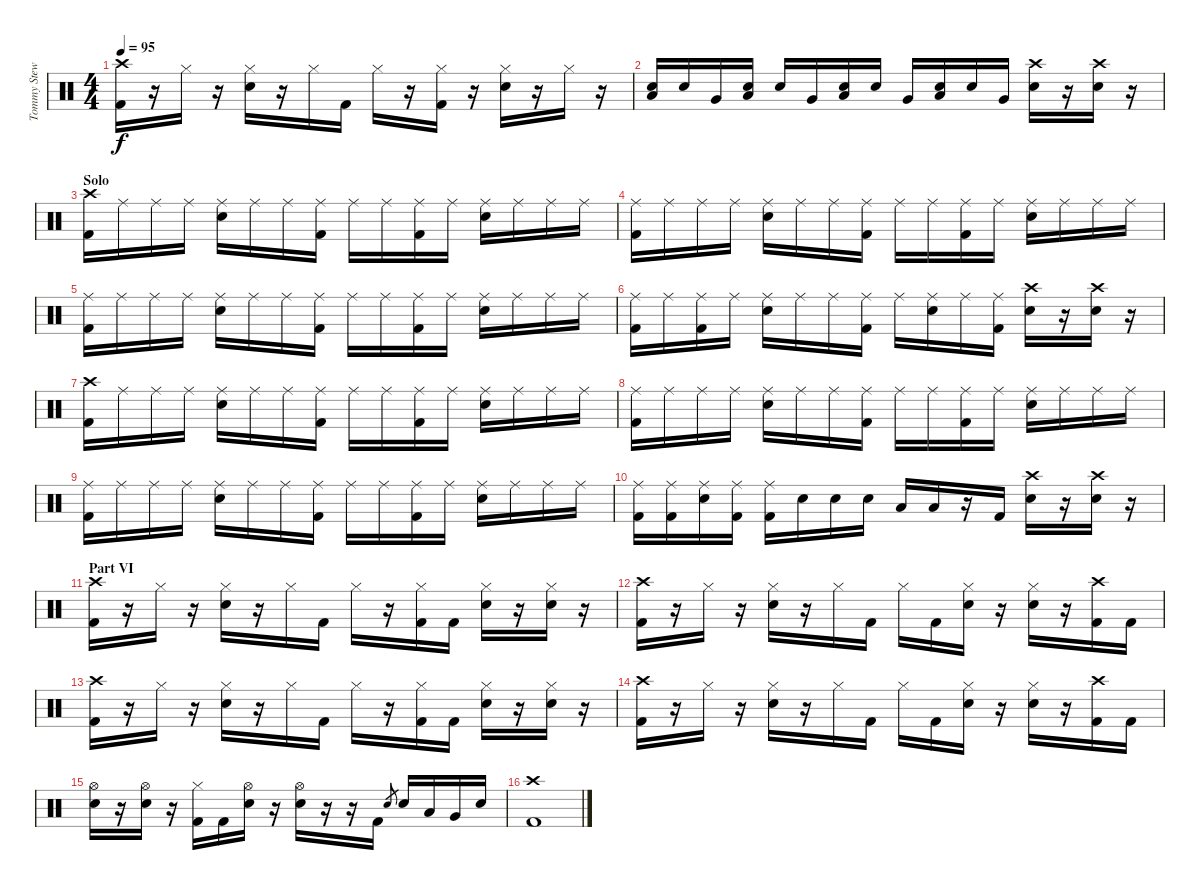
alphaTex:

\track ("Tommy Stewart - Drums" "Tommy Stew") {instrument percussion}
\staff {score}
\articulation defaults
\ts (4 4)
\tempo 95
\clef neutral
\ks c
("Crash high (hit)" "Kick (hit) 2").16{dy f} r.16 "Hi-Hat (closed)".16 r.16 ("Hi-Hat (closed)" "Snare (hit) 2").16 r.16 "Hi-Hat (closed)".16 "Kick (hit) 2".16 "Hi-Hat (closed)".16 r.16 ("Hi-Hat (closed)" "Kick (hit) 2").16 r.16 ("Hi-Hat (closed)" "Snare (hit) 2").16 r.16 "Hi-Hat (closed)".16 r.16 |
("Low Tom (hit)" "Snare (hit) 2").16 "Snare (hit) 2".16 "Very Low Tom (hit)".16 ("Low Tom (hit)" "Snare (hit) 2").16 "Snare (hit) 2".16 "Very Low Tom (hit)".16 ("Low Tom (hit)" "Snare (hit) 2").16 "Snare (hit) 2".16 "Very Low Tom (hit)".16 ("Low Tom (hit)" "Snare (hit) 2").16 "Snare (hit) 2".16 "Very Low Tom (hit)".16 ("Crash high (hit)" "Snare (hit) 2").16 r.16 ("Crash high (hit)" "Snare (hit) 2").16 r.16 |
\section ("" "Solo")
("Crash high (hit)" "Kick (hit) 2").16 "Ride (middle)".16 "Ride (middle)".16 "Ride (middle)".16 ("Ride (middle)" "Snare (hit) 2").16 "Ride (middle)".16 "Ride (middle)".16 ("Ride (middle)" "Kick (hit) 2").16 "Ride (middle)".16 "Ride (middle)".16 ("Ride (middle)" "Kick (hit) 2").16 "Ride (middle)".16 ("Ride (middle)" "Snare (hit) 2").16 "Ride (middle)".16 "Ride (middle)".16 "Ride (middle)".16 |
("Ride (middle)" "Kick (hit) 2").16 "Ride (middle)".16 "Ride (middle)".16 "Ride (middle)".16 ("Ride (middle)" "Snare (hit) 2").16 "Ride (middle)".16 "Ride (middle)".16 ("Ride (middle)" "Kick (hit) 2").16 "Ride (middle)".16 "Ride (middle)".16 ("Ride (middle)" "Kick (hit) 2").16 "Ride (middle)".16 ("Ride (middle)" "Snare (hit) 2").16 "Ride (middle)".16 "Ride (middle)".16 "Ride (middle)".16 |
("Ride (middle)" "Kick (hit) 2").16 "Ride (middle)".16 "Ride (middle)".16 "Ride (middle)".16 ("Ride (middle)" "Snare (hit) 2").16 "Ride (middle)".16 "Ride (middle)".16 ("Ride (middle)" "Kick (hit) 2").16 "Ride (middle)".16 "Ride (middle)".16 ("Ride (middle)" "Kick (hit) 2").16 "Ride (middle)".16 ("Ride (middle)" "Snare (hit) 2").16 "Ride (middle)".16 "Ride (middle)".16 "Ride (middle)".16 |
("Ride (middle)" "Kick (hit) 2").16 "Ride (middle)".16 ("Ride (middle)" "Kick (hit) 2").16 "Ride (middle)".16 ("Ride (middle)" "Snare (hit) 2").16 "Ride (middle)".16 "Ride (middle)".16 ("Ride (middle)" "Kick (hit) 2").16 "Ride (middle)".16 ("Ride (middle)" "Snare (hit) 2").16 "Ride (middle)".16 ("Ride (middle)" "Kick (hit) 2").16 ("Crash high (hit)" "Snare (hit) 2").16 r.16 ("Crash high (hit)" "Snare (hit) 2").16 r.16 |
("Crash high (hit)" "Kick (hit) 2").16 "Ride (middle)".16 "Ride (middle)".16 "Ride (middle)".16 ("Ride (middle)" "Snare (hit) 2").16 "Ride (middle)".16 "Ride (middle)".16 ("Ride (middle)" "Kick (hit) 2").16 "Ride (middle)".16 "Ride (middle)".16 ("Ride (middle)" "Kick (hit) 2").16 "Ride (middle)".16 ("Ride (middle)" "Snare (hit) 2").16 "Ride (middle)".16 "Ride (middle)".16 "Ride (middle)".16 |
("Ride (middle)" "Kick (hit) 2").16 "Ride (middle)".16 "Ride (middle)".16 "Ride (middle)".16 ("Ride (middle)" "Snare (hit) 2").16 "Ride (middle)".16 "Ride (middle)".16 ("Ride (middle)" "Kick (hit) 2").16 "Ride (middle)".16 "Ride (middle)".16 ("Ride (middle)" "Kick (hit) 2").16 "Ride (middle)".16 ("Ride (middle)" "Snare (hit) 2").16 "Ride (middle)".16 "Ride (middle)".16 "Ride (middle)".16 |
("Ride (middle)" "Kick (hit) 2").16 "Ride (middle)".16 "Ride (middle)".16 "Ride (middle)".16 ("Ride (middle)" "Snare (hit) 2").16 "Ride (middle)".16 "Ride (middle)".16 ("Ride (middle)" "Kick (hit) 2").16 "Ride (middle)".16 "Ride (middle)".16 ("Ride (middle)" "Kick (hit) 2").16 "Ride (middle)".16 ("Ride (middle)" "Snare (hit) 2").16 "Ride (middle)".16 "Ride (middle)".16 "Ride (middle)".16 |
("Ride (middle)" "Kick (hit) 2").16 ("Ride (middle)" "Kick (hit) 2").16 ("Ride (middle)" "Snare (hit) 2").16 ("Ride (middle)" "Kick (hit) 2").16 ("Ride (middle)" "Kick (hit) 2").16 "Snare (hit) 2".16 "Snare (hit) 2".16 "Snare (hit) 2".16 "Low Tom (hit)".16 "Low Tom (hit)".16 r.16 "Kick (hit) 2".16 ("Crash high (hit)" "Snare (hit) 2").16 r.16 ("Crash high (hit)" "Snare (hit) 2").16 r.16 |
\section ("" "Part VI")
("Crash high (hit)" "Kick (hit) 2").16 r.16 "Hi-Hat (closed)".16 r.16 ("Hi-Hat (closed)" "Snare (hit) 2").16 r.16 "Hi-Hat (closed)".16 "Kick (hit) 2".16 "Hi-Hat (closed)".16 r.16 ("Hi-Hat (closed)" "Kick (hit) 2").16 "Kick (hit) 2".16 ("Hi-Hat (closed)" "Snare (hit) 2").16 r.16 ("Hi-Hat (closed)" "Snare (hit) 2").16 r.16 |
("Crash high (hit)" "Kick (hit) 2").16 r.16 "Hi-Hat (closed)".16 r.16 ("Hi-Hat (closed)" "Snare (hit) 2").16 r.16 "Hi-Hat (closed)".16 "Kick (hit) 2".16 "Hi-Hat (closed)".16 "Kick (hit) 2".16 ("Hi-Hat (closed)" "Snare (hit) 2").16 r.16 ("Hi-Hat (closed)" "Snare (hit) 2").16 r.16 ("Crash high (hit)" "Kick (hit) 2").16 "Kick (hit) 2".16 |
("Crash high (hit)" "Kick (hit) 2").16 r.16 "Hi-Hat (closed)".16 r.16 ("Hi-Hat (closed)" "Snare (hit) 2").16 r.16 "Hi-Hat (closed)".16 "Kick (hit) 2".16 "Hi-Hat (closed)".16 r.16 ("Hi-Hat (closed)" "Kick (hit) 2").16 "Kick (hit) 2".16 ("Hi-Hat (closed)" "Snare (hit) 2").16 r.16 ("Hi-Hat (closed)" "Snare (hit) 2").16 r.16 |
("Crash high (hit)" "Kick (hit) 2").16 r.16 "Hi-Hat (closed)".16 r.16 ("Hi-Hat (closed)" "Snare (hit) 2").16 r.16 "Hi-Hat (closed)".16 "Kick (hit) 2".16 "Hi-Hat (closed)".16 "Kick (hit) 2".16 ("Hi-Hat (closed)" "Snare (hit) 2").16 r.16 ("Hi-Hat (closed)" "Snare (hit) 2").16 r.16 ("Crash high (hit)" "Kick (hit) 2").16 "Kick (hit) 2".16 |
("Hi-Hat (open)" "Snare (hit) 2").16 r.16 ("Hi-Hat (open)" "Snare (hit) 2").16 r.16 ("Hi-Hat (closed)" "Kick (hit) 2").16 "Kick (hit) 2".16 ("Hi-Hat (open)" "Snare (hit) 2").16 r.16 ("Hi-Hat (open)" "Snare (hit) 2").16 r.16 r.16 "Kick (hit) 2".16 "Snare (hit) 2".8{gr} "Snare (hit) 2".16 "Low Tom (hit)".16 "Very Low Tom (hit)".16 "Snare (hit) 2".16 |
("Crash high (hit)" "Kick (hit) 2").1
